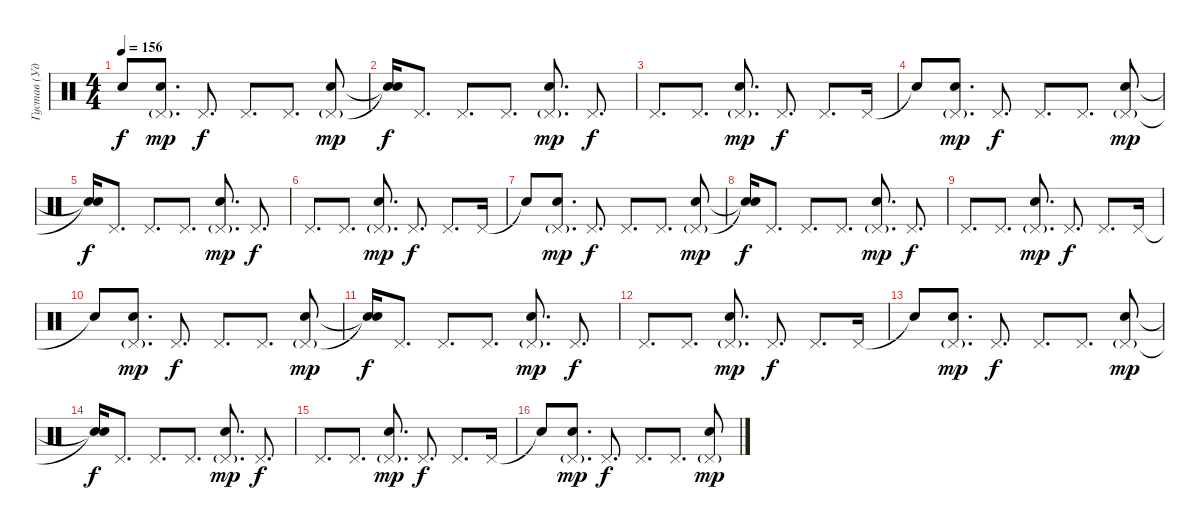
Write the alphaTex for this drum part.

\track ("Густав (Ударные)" "Густав (Уд") {instrument percussion}
\staff {score}
\articulation defaults
\ts (4 4)
\tempo 156
\clef neutral
\ks c "Snare (hit)"{t}.8{dy f}
("Pedal Hi-Hat (hit)"{g} "Electric Snare (hit)").8{d dy mp} "Pedal Hi-Hat (hit)".8{d dy f} "Pedal Hi-Hat (hit)".8{d} "Pedal Hi-Hat (hit)".8{d} ("Pedal Hi-Hat (hit)"{g} "Electric Snare (hit)").8{dy mp} |
("Snare (hit)"{t} "Snare (hit)"{t}).16{dy f} "Pedal Hi-Hat (hit)".8{d} "Pedal Hi-Hat (hit)".8{d} "Pedal Hi-Hat (hit)".8{d} ("Pedal Hi-Hat (hit)"{g} "Electric Snare (hit)").8{d dy mp} "Pedal Hi-Hat (hit)".8{d dy f} |
"Pedal Hi-Hat (hit)".8{d} "Pedal Hi-Hat (hit)".8{d} ("Pedal Hi-Hat (hit)"{g} "Electric Snare (hit)").8{d dy mp} "Pedal Hi-Hat (hit)".8{d dy f} "Pedal Hi-Hat (hit)".8{d} "Pedal Hi-Hat (hit)".16 |
"Snare (hit)"{t}.8 ("Pedal Hi-Hat (hit)"{g} "Electric Snare (hit)").8{d dy mp} "Pedal Hi-Hat (hit)".8{d dy f} "Pedal Hi-Hat (hit)".8{d} "Pedal Hi-Hat (hit)".8{d} ("Pedal Hi-Hat (hit)"{g} "Electric Snare (hit)").8{dy mp} |
("Snare (hit)"{t} "Snare (hit)"{t}).16{dy f} "Pedal Hi-Hat (hit)".8{d} "Pedal Hi-Hat (hit)".8{d} "Pedal Hi-Hat (hit)".8{d} ("Pedal Hi-Hat (hit)"{g} "Electric Snare (hit)").8{d dy mp} "Pedal Hi-Hat (hit)".8{d dy f} |
"Pedal Hi-Hat (hit)".8{d} "Pedal Hi-Hat (hit)".8{d} ("Pedal Hi-Hat (hit)"{g} "Electric Snare (hit)").8{d dy mp} "Pedal Hi-Hat (hit)".8{d dy f} "Pedal Hi-Hat (hit)".8{d} "Pedal Hi-Hat (hit)".16 |
"Snare (hit)"{t}.8 ("Pedal Hi-Hat (hit)"{g} "Electric Snare (hit)").8{d dy mp} "Pedal Hi-Hat (hit)".8{d dy f} "Pedal Hi-Hat (hit)".8{d} "Pedal Hi-Hat (hit)".8{d} ("Pedal Hi-Hat (hit)"{g} "Electric Snare (hit)").8{dy mp} |
("Snare (hit)"{t} "Snare (hit)"{t}).16{dy f} "Pedal Hi-Hat (hit)".8{d} "Pedal Hi-Hat (hit)".8{d} "Pedal Hi-Hat (hit)".8{d} ("Pedal Hi-Hat (hit)"{g} "Electric Snare (hit)").8{d dy mp} "Pedal Hi-Hat (hit)".8{d dy f} |
"Pedal Hi-Hat (hit)".8{d} "Pedal Hi-Hat (hit)".8{d} ("Pedal Hi-Hat (hit)"{g} "Electric Snare (hit)").8{d dy mp} "Pedal Hi-Hat (hit)".8{d dy f} "Pedal Hi-Hat (hit)".8{d} "Pedal Hi-Hat (hit)".16 |
"Snare (hit)"{t}.8 ("Pedal Hi-Hat (hit)"{g} "Electric Snare (hit)").8{d dy mp} "Pedal Hi-Hat (hit)".8{d dy f} "Pedal Hi-Hat (hit)".8{d} "Pedal Hi-Hat (hit)".8{d} ("Pedal Hi-Hat (hit)"{g} "Electric Snare (hit)").8{dy mp} |
("Snare (hit)"{t} "Snare (hit)"{t}).16{dy f} "Pedal Hi-Hat (hit)".8{d} "Pedal Hi-Hat (hit)".8{d} "Pedal Hi-Hat (hit)".8{d} ("Pedal Hi-Hat (hit)"{g} "Electric Snare (hit)").8{d dy mp} "Pedal Hi-Hat (hit)".8{d dy f} |
"Pedal Hi-Hat (hit)".8{d} "Pedal Hi-Hat (hit)".8{d} ("Pedal Hi-Hat (hit)"{g} "Electric Snare (hit)").8{d dy mp} "Pedal Hi-Hat (hit)".8{d dy f} "Pedal Hi-Hat (hit)".8{d} "Pedal Hi-Hat (hit)".16 |
"Snare (hit)"{t}.8 ("Pedal Hi-Hat (hit)"{g} "Electric Snare (hit)").8{d dy mp} "Pedal Hi-Hat (hit)".8{d dy f} "Pedal Hi-Hat (hit)".8{d} "Pedal Hi-Hat (hit)".8{d} ("Pedal Hi-Hat (hit)"{g} "Electric Snare (hit)").8{dy mp} |
("Snare (hit)"{t} "Snare (hit)"{t}).16{dy f} "Pedal Hi-Hat (hit)".8{d} "Pedal Hi-Hat (hit)".8{d} "Pedal Hi-Hat (hit)".8{d} ("Pedal Hi-Hat (hit)"{g} "Electric Snare (hit)").8{d dy mp} "Pedal Hi-Hat (hit)".8{d dy f} |
"Pedal Hi-Hat (hit)".8{d} "Pedal Hi-Hat (hit)".8{d} ("Pedal Hi-Hat (hit)"{g} "Electric Snare (hit)").8{d dy mp} "Pedal Hi-Hat (hit)".8{d dy f} "Pedal Hi-Hat (hit)".8{d} "Pedal Hi-Hat (hit)".16 |
"Snare (hit)"{t}.8 ("Pedal Hi-Hat (hit)"{g} "Electric Snare (hit)").8{d dy mp} "Pedal Hi-Hat (hit)".8{d dy f} "Pedal Hi-Hat (hit)".8{d} "Pedal Hi-Hat (hit)".8{d} ("Pedal Hi-Hat (hit)"{g} "Electric Snare (hit)").8{dy mp}
